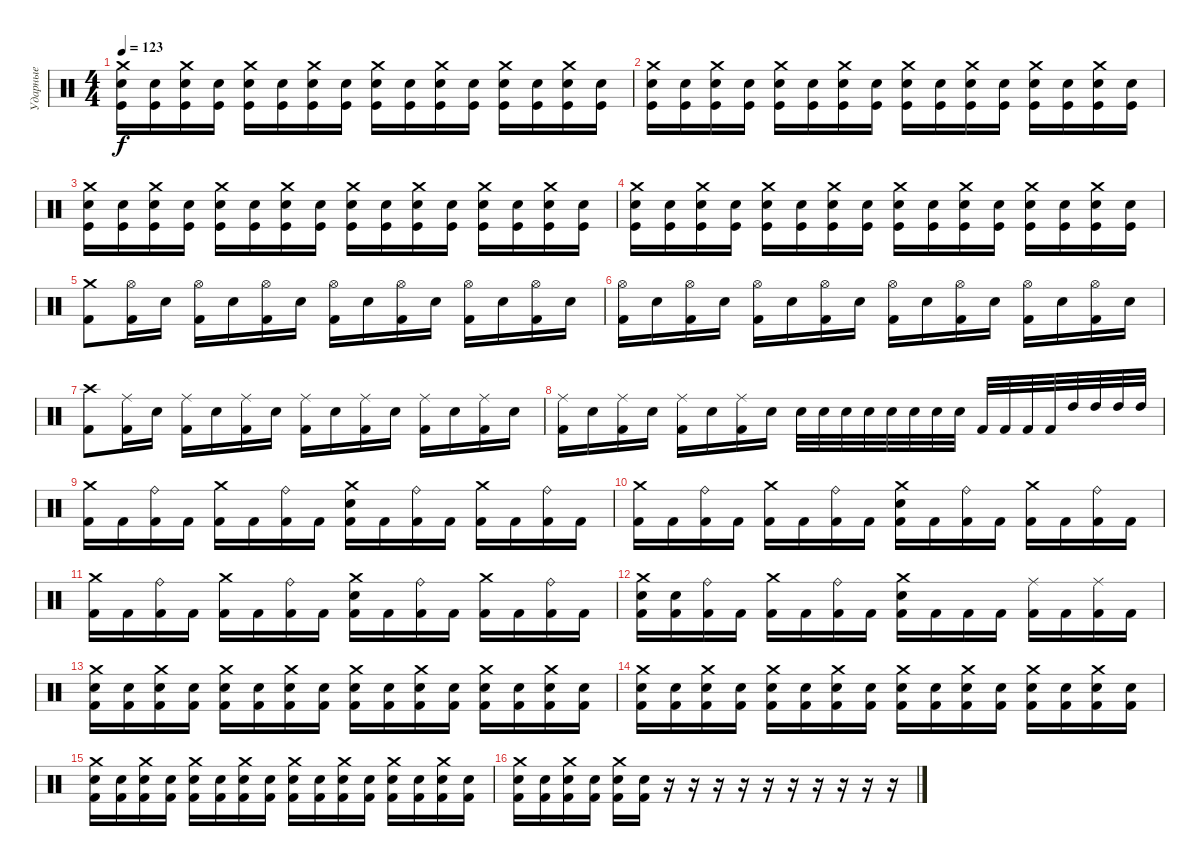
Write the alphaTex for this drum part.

\track ("Ударные" "Ударные") {instrument percussion}
\staff {score}
\articulation defaults
\ts (4 4)
\tempo 123
\clef neutral
\ks c
("Crash medium (hit)" "Electric Snare (hit)" "Kick (hit)").16{dy f} ("Electric Snare (hit)" "Kick (hit)").16 ("Crash medium (hit)" "Electric Snare (hit)" "Kick (hit)").16 ("Electric Snare (hit)" "Kick (hit)").16 ("Crash medium (hit)" "Electric Snare (hit)" "Kick (hit)").16 ("Electric Snare (hit)" "Kick (hit)").16 ("Crash medium (hit)" "Electric Snare (hit)" "Kick (hit)").16 ("Electric Snare (hit)" "Kick (hit)").16 ("Crash medium (hit)" "Electric Snare (hit)" "Kick (hit)").16 ("Electric Snare (hit)" "Kick (hit)").16 ("Crash medium (hit)" "Electric Snare (hit)" "Kick (hit)").16 ("Electric Snare (hit)" "Kick (hit)").16 ("Crash medium (hit)" "Electric Snare (hit)" "Kick (hit)").16 ("Electric Snare (hit)" "Kick (hit)").16 ("Crash medium (hit)" "Electric Snare (hit)" "Kick (hit)").16 ("Electric Snare (hit)" "Kick (hit)").16 |
("Crash medium (hit)" "Electric Snare (hit)" "Kick (hit)").16 ("Electric Snare (hit)" "Kick (hit)").16 ("Crash medium (hit)" "Electric Snare (hit)" "Kick (hit)").16 ("Electric Snare (hit)" "Kick (hit)").16 ("Crash medium (hit)" "Electric Snare (hit)" "Kick (hit)").16 ("Electric Snare (hit)" "Kick (hit)").16 ("Crash medium (hit)" "Electric Snare (hit)" "Kick (hit)").16 ("Electric Snare (hit)" "Kick (hit)").16 ("Crash medium (hit)" "Electric Snare (hit)" "Kick (hit)").16 ("Electric Snare (hit)" "Kick (hit)").16 ("Crash medium (hit)" "Electric Snare (hit)" "Kick (hit)").16 ("Electric Snare (hit)" "Kick (hit)").16 ("Crash medium (hit)" "Electric Snare (hit)" "Kick (hit)").16 ("Electric Snare (hit)" "Kick (hit)").16 ("Crash medium (hit)" "Electric Snare (hit)" "Kick (hit)").16 ("Electric Snare (hit)" "Kick (hit)").16 |
("Crash medium (hit)" "Electric Snare (hit)" "Kick (hit)").16 ("Electric Snare (hit)" "Kick (hit)").16 ("Crash medium (hit)" "Electric Snare (hit)" "Kick (hit)").16 ("Electric Snare (hit)" "Kick (hit)").16 ("Crash medium (hit)" "Electric Snare (hit)" "Kick (hit)").16 ("Electric Snare (hit)" "Kick (hit)").16 ("Crash medium (hit)" "Electric Snare (hit)" "Kick (hit)").16 ("Electric Snare (hit)" "Kick (hit)").16 ("Crash medium (hit)" "Electric Snare (hit)" "Kick (hit)").16 ("Electric Snare (hit)" "Kick (hit)").16 ("Crash medium (hit)" "Electric Snare (hit)" "Kick (hit)").16 ("Electric Snare (hit)" "Kick (hit)").16 ("Crash medium (hit)" "Electric Snare (hit)" "Kick (hit)").16 ("Electric Snare (hit)" "Kick (hit)").16 ("Crash medium (hit)" "Electric Snare (hit)" "Kick (hit)").16 ("Electric Snare (hit)" "Kick (hit)").16 |
("Crash medium (hit)" "Electric Snare (hit)" "Kick (hit)").16 ("Electric Snare (hit)" "Kick (hit)").16 ("Crash medium (hit)" "Electric Snare (hit)" "Kick (hit)").16 ("Electric Snare (hit)" "Kick (hit)").16 ("Crash medium (hit)" "Electric Snare (hit)" "Kick (hit)").16 ("Electric Snare (hit)" "Kick (hit)").16 ("Crash medium (hit)" "Electric Snare (hit)" "Kick (hit)").16 ("Electric Snare (hit)" "Kick (hit)").16 ("Crash medium (hit)" "Electric Snare (hit)" "Kick (hit)").16 ("Electric Snare (hit)" "Kick (hit)").16 ("Crash medium (hit)" "Electric Snare (hit)" "Kick (hit)").16 ("Electric Snare (hit)" "Kick (hit)").16 ("Crash medium (hit)" "Electric Snare (hit)" "Kick (hit)").16 ("Electric Snare (hit)" "Kick (hit)").16 ("Crash medium (hit)" "Electric Snare (hit)" "Kick (hit)").16 ("Electric Snare (hit)" "Kick (hit)").16 |
("Crash medium (hit)" "Kick (hit) 2").8 ("Hi-Hat (open)" "Kick (hit) 2").16 "Electric Snare (hit)".16 ("Hi-Hat (open)" "Kick (hit) 2").16 "Electric Snare (hit)".16 ("Hi-Hat (open)" "Kick (hit) 2").16 "Electric Snare (hit)".16 ("Hi-Hat (open)" "Kick (hit) 2").16 "Electric Snare (hit)".16 ("Hi-Hat (open)" "Kick (hit) 2").16 "Electric Snare (hit)".16 ("Hi-Hat (open)" "Kick (hit) 2").16 "Electric Snare (hit)".16 ("Hi-Hat (open)" "Kick (hit) 2").16 "Electric Snare (hit)".16 |
("Hi-Hat (open)" "Kick (hit) 2").16 "Electric Snare (hit)".16 ("Hi-Hat (open)" "Kick (hit) 2").16 "Electric Snare (hit)".16 ("Hi-Hat (open)" "Kick (hit) 2").16 "Electric Snare (hit)".16 ("Hi-Hat (open)" "Kick (hit) 2").16 "Electric Snare (hit)".16 ("Hi-Hat (open)" "Kick (hit) 2").16 "Electric Snare (hit)".16 ("Hi-Hat (open)" "Kick (hit) 2").16 "Electric Snare (hit)".16 ("Hi-Hat (open)" "Kick (hit) 2").16 "Electric Snare (hit)".16 ("Hi-Hat (open)" "Kick (hit) 2").16 "Electric Snare (hit)".16 |
("Crash high (hit)" "Kick (hit) 2").8 ("Ride (middle)" "Kick (hit) 2").16 "Electric Snare (hit)".16 ("Ride (middle)" "Kick (hit) 2").16 "Electric Snare (hit)".16 ("Ride (middle)" "Kick (hit) 2").16 "Electric Snare (hit)".16 ("Ride (middle)" "Kick (hit) 2").16 "Electric Snare (hit)".16 ("Ride (middle)" "Kick (hit) 2").16 "Electric Snare (hit)".16 ("Ride (middle)" "Kick (hit) 2").16 "Electric Snare (hit)".16 ("Ride (middle)" "Kick (hit) 2").16 "Electric Snare (hit)".16 |
("Ride (middle)" "Kick (hit) 2").16 "Electric Snare (hit)".16 ("Ride (middle)" "Kick (hit) 2").16 "Electric Snare (hit)".16 ("Ride (middle)" "Kick (hit) 2").16 "Electric Snare (hit)".16 ("Ride (middle)" "Kick (hit) 2").16 "Electric Snare (hit)".16 "Snare (hit) 2".32 "Snare (hit) 2".32 "Snare (hit) 2".32 "Snare (hit) 2".32 "Electric Snare (hit)".32 "Electric Snare (hit)".32 "Electric Snare (hit)".32 "Electric Snare (hit)".32 "Kick (hit) 2".32 "Kick (hit) 2".32 "Kick (hit) 2".32 "Kick (hit) 2".32 "High Tom (hit)".32 "High Tom (hit)".32 "High Tom (hit)".32 "High Tom (hit)".32 |
("Crash medium (hit)" "Kick (hit) 2").16 "Kick (hit) 2".16 ("Ride (bell)" "Kick (hit) 2").16 "Kick (hit) 2".16 ("Crash medium (hit)" "Kick (hit) 2").16 "Kick (hit) 2".16 ("Ride (bell)" "Kick (hit) 2").16 "Kick (hit) 2".16 ("Electric Snare (hit)" "Crash medium (hit)" "Kick (hit) 2").16 "Kick (hit) 2".16 ("Ride (bell)" "Kick (hit) 2").16 "Kick (hit) 2".16 ("Crash medium (hit)" "Kick (hit) 2").16 "Kick (hit) 2".16 ("Ride (bell)" "Kick (hit) 2").16 "Kick (hit) 2".16 |
("Crash medium (hit)" "Kick (hit) 2").16 "Kick (hit) 2".16 ("Ride (bell)" "Kick (hit) 2").16 "Kick (hit) 2".16 ("Crash medium (hit)" "Kick (hit) 2").16 "Kick (hit) 2".16 ("Ride (bell)" "Kick (hit) 2").16 "Kick (hit) 2".16 ("Electric Snare (hit)" "Crash medium (hit)" "Kick (hit) 2").16 "Kick (hit) 2".16 ("Ride (bell)" "Kick (hit) 2").16 "Kick (hit) 2".16 ("Crash medium (hit)" "Kick (hit) 2").16 "Kick (hit) 2".16 ("Ride (bell)" "Kick (hit) 2").16 "Kick (hit) 2".16 |
("Crash medium (hit)" "Kick (hit) 2").16 "Kick (hit) 2".16 ("Ride (bell)" "Kick (hit) 2").16 "Kick (hit) 2".16 ("Crash medium (hit)" "Kick (hit) 2").16 "Kick (hit) 2".16 ("Ride (bell)" "Kick (hit) 2").16 "Kick (hit) 2".16 ("Electric Snare (hit)" "Crash medium (hit)" "Kick (hit) 2").16 "Kick (hit) 2".16 ("Ride (bell)" "Kick (hit) 2").16 "Kick (hit) 2".16 ("Crash medium (hit)" "Kick (hit) 2").16 "Kick (hit) 2".16 ("Ride (bell)" "Kick (hit) 2").16 "Kick (hit) 2".16 |
("Crash medium (hit)" "Electric Snare (hit)" "Kick (hit) 2").16 ("Electric Snare (hit)" "Kick (hit) 2").16 ("Ride (bell)" "Kick (hit) 2").16 "Kick (hit) 2".16 ("Crash medium (hit)" "Kick (hit) 2").16 "Kick (hit) 2".16 ("Ride (bell)" "Kick (hit) 2").16 "Kick (hit) 2".16 ("Electric Snare (hit)" "Crash medium (hit)" "Kick (hit) 2").16 "Kick (hit) 2".16 "Kick (hit) 2".16 "Kick (hit) 2".16 ("Ride (middle)" "Kick (hit) 2").16 "Kick (hit) 2".16 ("Ride (middle)" "Kick (hit) 2").16 "Kick (hit) 2".16 |
("Crash medium (hit)" "Electric Snare (hit)" "Kick (hit) 2").16 ("Electric Snare (hit)" "Kick (hit) 2").16 ("Crash medium (hit)" "Electric Snare (hit)" "Kick (hit) 2").16 ("Electric Snare (hit)" "Kick (hit) 2").16 ("Crash medium (hit)" "Electric Snare (hit)" "Kick (hit) 2").16 ("Electric Snare (hit)" "Kick (hit) 2").16 ("Crash medium (hit)" "Electric Snare (hit)" "Kick (hit) 2").16 ("Electric Snare (hit)" "Kick (hit) 2").16 ("Crash medium (hit)" "Electric Snare (hit)" "Kick (hit) 2").16 ("Electric Snare (hit)" "Kick (hit) 2").16 ("Crash medium (hit)" "Electric Snare (hit)" "Kick (hit) 2").16 ("Electric Snare (hit)" "Kick (hit) 2").16 ("Crash medium (hit)" "Electric Snare (hit)" "Kick (hit) 2").16 ("Electric Snare (hit)" "Kick (hit) 2").16 ("Crash medium (hit)" "Electric Snare (hit)" "Kick (hit) 2").16 ("Electric Snare (hit)" "Kick (hit) 2").16 |
("Crash medium (hit)" "Electric Snare (hit)" "Kick (hit) 2").16 ("Electric Snare (hit)" "Kick (hit) 2").16 ("Crash medium (hit)" "Electric Snare (hit)" "Kick (hit) 2").16 ("Electric Snare (hit)" "Kick (hit) 2").16 ("Crash medium (hit)" "Electric Snare (hit)" "Kick (hit) 2").16 ("Electric Snare (hit)" "Kick (hit) 2").16 ("Crash medium (hit)" "Electric Snare (hit)" "Kick (hit) 2").16 ("Electric Snare (hit)" "Kick (hit) 2").16 ("Crash medium (hit)" "Electric Snare (hit)" "Kick (hit) 2").16 ("Electric Snare (hit)" "Kick (hit) 2").16 ("Crash medium (hit)" "Electric Snare (hit)" "Kick (hit) 2").16 ("Electric Snare (hit)" "Kick (hit) 2").16 ("Crash medium (hit)" "Electric Snare (hit)" "Kick (hit) 2").16 ("Electric Snare (hit)" "Kick (hit) 2").16 ("Crash medium (hit)" "Electric Snare (hit)" "Kick (hit) 2").16 ("Electric Snare (hit)" "Kick (hit) 2").16 |
("Crash medium (hit)" "Electric Snare (hit)" "Kick (hit) 2").16 ("Electric Snare (hit)" "Kick (hit) 2").16 ("Crash medium (hit)" "Electric Snare (hit)" "Kick (hit) 2").16 ("Electric Snare (hit)" "Kick (hit) 2").16 ("Crash medium (hit)" "Electric Snare (hit)" "Kick (hit) 2").16 ("Electric Snare (hit)" "Kick (hit) 2").16 ("Crash medium (hit)" "Electric Snare (hit)" "Kick (hit) 2").16 ("Electric Snare (hit)" "Kick (hit) 2").16 ("Crash medium (hit)" "Electric Snare (hit)" "Kick (hit) 2").16 ("Electric Snare (hit)" "Kick (hit) 2").16 ("Crash medium (hit)" "Electric Snare (hit)" "Kick (hit) 2").16 ("Electric Snare (hit)" "Kick (hit) 2").16 ("Crash medium (hit)" "Electric Snare (hit)" "Kick (hit) 2").16 ("Electric Snare (hit)" "Kick (hit) 2").16 ("Crash medium (hit)" "Electric Snare (hit)" "Kick (hit) 2").16 ("Electric Snare (hit)" "Kick (hit) 2").16 |
("Crash medium (hit)" "Electric Snare (hit)" "Kick (hit) 2").16 ("Electric Snare (hit)" "Kick (hit) 2").16 ("Crash medium (hit)" "Electric Snare (hit)" "Kick (hit) 2").16 ("Electric Snare (hit)" "Kick (hit) 2").16 ("Crash medium (hit)" "Electric Snare (hit)" "Kick (hit) 2").16 ("Electric Snare (hit)" "Kick (hit) 2").16 r.16 r.16 r.16 r.16 r.16 r.16 r.16 r.16 r.16 r.16
